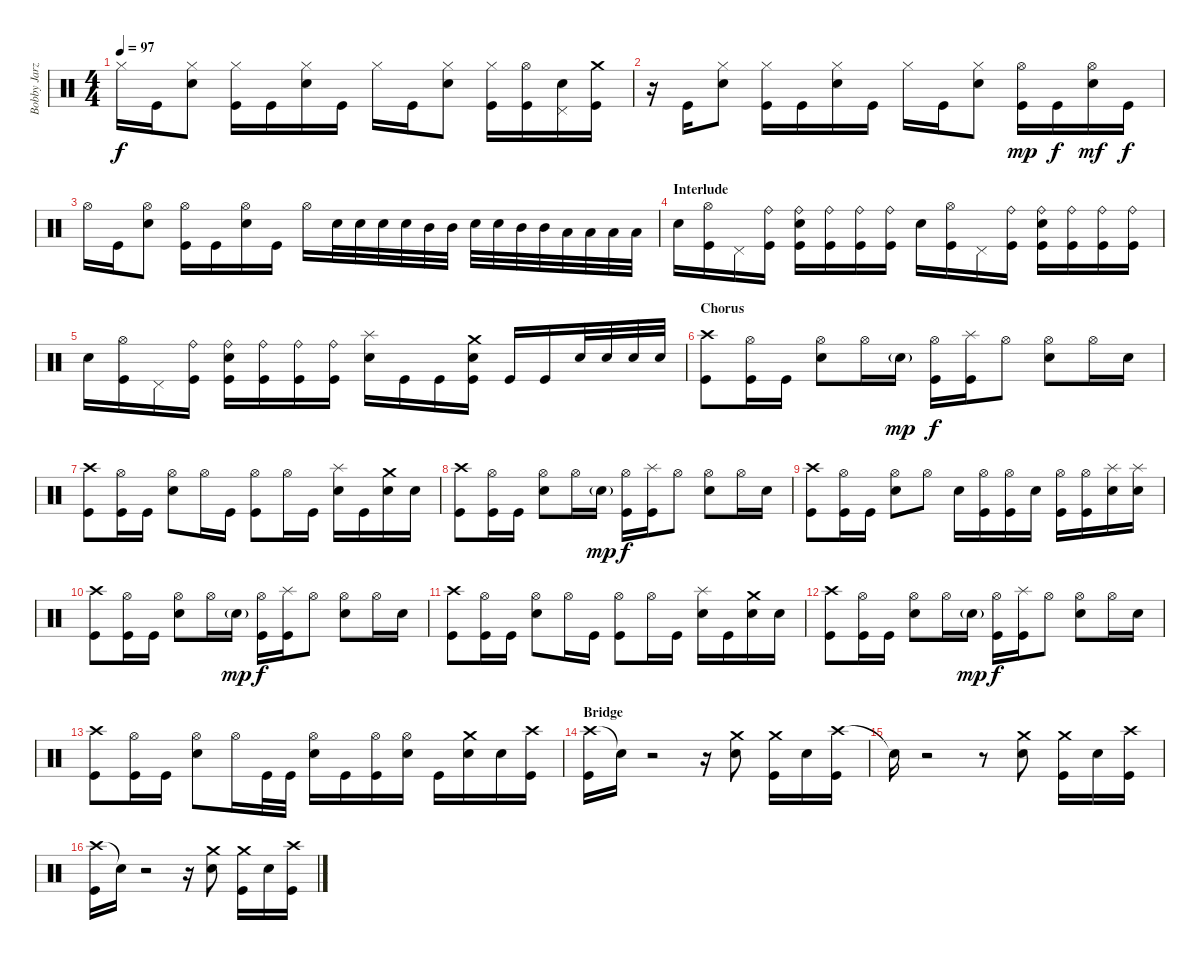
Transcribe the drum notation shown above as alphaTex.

\track ("Bobby Jarzombek" "Bobby Jarz") {instrument percussion}
\staff {score}
\articulation defaults
\ts (4 4)
\tempo 97
\clef neutral
\ks c "Hi-Hat (closed)".16{dy f} "Kick (hit)".16
("Hi-Hat (closed)" "Electric Snare (hit)").8 ("Hi-Hat (closed)" "Kick (hit)").16 "Kick (hit)".16 ("Hi-Hat (closed)" "Electric Snare (hit)").16 "Kick (hit)".16 "Hi-Hat (closed)".16 "Kick (hit)".16 ("Hi-Hat (closed)" "Electric Snare (hit)").8 ("Hi-Hat (closed)" "Kick (hit)").16 ("Hi-Hat (open)" "Kick (hit)").16 ("Electric Snare (hit)" "Pedal Hi-Hat (hit)").16 ("Crash medium (hit)" "Kick (hit)").16 |
r.16 "Kick (hit)".16 ("Hi-Hat (closed)" "Electric Snare (hit)").8 ("Hi-Hat (closed)" "Kick (hit)").16 "Kick (hit)".16 ("Hi-Hat (closed)" "Electric Snare (hit)").16 "Kick (hit)".16 "Hi-Hat (closed)".16 "Kick (hit)".16 ("Hi-Hat (closed)" "Electric Snare (hit)").8 ("Hi-Hat (open)" "Kick (hit)").16{dy mp} "Kick (hit)".16{dy f} ("Hi-Hat (open)" "Electric Snare (hit)").16{dy mf} "Kick (hit)".16{dy f} |
"Hi-Hat (open)".16 "Kick (hit)".16 ("Hi-Hat (open)" "Electric Snare (hit)").8 ("Hi-Hat (open)" "Kick (hit)").16 "Kick (hit)".16 ("Hi-Hat (open)" "Electric Snare (hit)").16 "Kick (hit)".16 "Hi-Hat (open)".16 "Electric Snare (hit)".32 "Electric Snare (hit)".32 "Electric Snare (hit)".32 "Electric Snare (hit)".32 "Mid Tom (hit)".32 "Mid Tom (hit)".32 "Electric Snare (hit)".32 "Electric Snare (hit)".32 "Mid Tom (hit)".32 "Mid Tom (hit)".32 "Low Tom (hit)".32 "Low Tom (hit)".32 "Low Tom (hit)".32 "Low Tom (hit)".32 |
\section ("" "Interlude")
"Electric Snare (hit)".16 ("Hi-Hat (open)" "Kick (hit)").16 "Pedal Hi-Hat (hit)".16 ("Ride (bell)" "Kick (hit)").16 ("Ride (bell)" "Electric Snare (hit)" "Kick (hit)").16 ("Ride (bell)" "Kick (hit)").16 ("Ride (bell)" "Kick (hit)").16 ("Ride (bell)" "Kick (hit)").16 "Electric Snare (hit)".16 ("Hi-Hat (open)" "Kick (hit)").16 "Pedal Hi-Hat (hit)".16 ("Ride (bell)" "Kick (hit)").16 ("Ride (bell)" "Electric Snare (hit)" "Kick (hit)").16 ("Ride (bell)" "Kick (hit)").16 ("Ride (bell)" "Kick (hit)").16 ("Ride (bell)" "Kick (hit)").16 |
"Electric Snare (hit)".16 ("Hi-Hat (open)" "Kick (hit)").16 "Pedal Hi-Hat (hit)".16 ("Ride (bell)" "Kick (hit)").16 ("Ride (bell)" "Electric Snare (hit)" "Kick (hit)").16 ("Ride (bell)" "Kick (hit)").16 ("Ride (bell)" "Kick (hit)").16 ("Ride (bell)" "Kick (hit)").16 ("Splash (hit)" "Electric Snare (hit)").16 "Kick (hit)".16 "Kick (hit)".16 ("Crash medium (hit)" "Electric Snare (hit)" "Kick (hit)").16 "Kick (hit)".16 "Kick (hit)".16 "Electric Snare (hit)".32 "Electric Snare (hit)".32 "Electric Snare (hit)".32 "Electric Snare (hit)".32 |
\section ("" "Chorus")
("Crash high (hit)" "Kick (hit)").8 ("Hi-Hat (open)" "Kick (hit)").16 "Kick (hit)".16 ("Hi-Hat (open)" "Electric Snare (hit)").8 "Hi-Hat (open)".16 "Electric Snare (hit)"{g}.16{dy mp} ("Hi-Hat (open)" "Kick (hit)").16{dy f} ("Splash (hit)" "Kick (hit)").16 "Hi-Hat (open)".8 ("Hi-Hat (open)" "Electric Snare (hit)").8 "Hi-Hat (open)".16 "Electric Snare (hit)".16 |
("Crash high (hit)" "Kick (hit)").8 ("Hi-Hat (open)" "Kick (hit)").16 "Kick (hit)".16 ("Hi-Hat (open)" "Electric Snare (hit)").8 "Hi-Hat (open)".16 "Kick (hit)".16 ("Hi-Hat (open)" "Kick (hit)").8 "Hi-Hat (open)".16 "Kick (hit)".16 ("Splash (hit)" "Electric Snare (hit)").16 "Kick (hit)".16 ("Crash medium (hit)" "Electric Snare (hit)").16 "Electric Snare (hit)".16 |
("Crash high (hit)" "Kick (hit)").8 ("Hi-Hat (open)" "Kick (hit)").16 "Kick (hit)".16 ("Hi-Hat (open)" "Electric Snare (hit)").8 "Hi-Hat (open)".16 "Electric Snare (hit)"{g}.16{dy mp} ("Hi-Hat (open)" "Kick (hit)").16{dy f} ("Splash (hit)" "Kick (hit)").16 "Hi-Hat (open)".8 ("Hi-Hat (open)" "Electric Snare (hit)").8 "Hi-Hat (open)".16 "Electric Snare (hit)".16 |
("Crash high (hit)" "Kick (hit)").8 ("Hi-Hat (open)" "Kick (hit)").16 "Kick (hit)".16 ("Hi-Hat (open)" "Electric Snare (hit)").8 "Hi-Hat (open)".8 "Electric Snare (hit)".16 ("Hi-Hat (open)" "Kick (hit)").16 ("Hi-Hat (open)" "Kick (hit)").16 "Electric Snare (hit)".16 ("Hi-Hat (open)" "Kick (hit)").16 ("Hi-Hat (open)" "Kick (hit)").16 ("Splash (hit)" "Electric Snare (hit)").16 ("Splash (hit)" "Electric Snare (hit)").16 |
("Crash high (hit)" "Kick (hit)").8 ("Hi-Hat (open)" "Kick (hit)").16 "Kick (hit)".16 ("Hi-Hat (open)" "Electric Snare (hit)").8 "Hi-Hat (open)".16 "Electric Snare (hit)"{g}.16{dy mp} ("Hi-Hat (open)" "Kick (hit)").16{dy f} ("Splash (hit)" "Kick (hit)").16 "Hi-Hat (open)".8 ("Hi-Hat (open)" "Electric Snare (hit)").8 "Hi-Hat (open)".16 "Electric Snare (hit)".16 |
("Crash high (hit)" "Kick (hit)").8 ("Hi-Hat (open)" "Kick (hit)").16 "Kick (hit)".16 ("Hi-Hat (open)" "Electric Snare (hit)").8 "Hi-Hat (open)".16 "Kick (hit)".16 ("Hi-Hat (open)" "Kick (hit)").8 "Hi-Hat (open)".16 "Kick (hit)".16 ("Splash (hit)" "Electric Snare (hit)").16 "Kick (hit)".16 ("Crash medium (hit)" "Electric Snare (hit)").16 "Electric Snare (hit)".16 |
("Crash high (hit)" "Kick (hit)").8 ("Hi-Hat (open)" "Kick (hit)").16 "Kick (hit)".16 ("Hi-Hat (open)" "Electric Snare (hit)").8 "Hi-Hat (open)".16 "Electric Snare (hit)"{g}.16{dy mp} ("Hi-Hat (open)" "Kick (hit)").16{dy f} ("Splash (hit)" "Kick (hit)").16 "Hi-Hat (open)".8 ("Hi-Hat (open)" "Electric Snare (hit)").8 "Hi-Hat (open)".16 "Electric Snare (hit)".16 |
("Crash high (hit)" "Kick (hit)").8 ("Hi-Hat (open)" "Kick (hit)").16 "Kick (hit)".16 ("Hi-Hat (open)" "Electric Snare (hit)").8 "Hi-Hat (open)".16 "Kick (hit)".32 "Kick (hit)".32 ("Hi-Hat (open)" "Electric Snare (hit)").16 "Kick (hit)".16 ("Hi-Hat (open)" "Kick (hit)").16 ("Hi-Hat (open)" "Electric Snare (hit)").16 "Kick (hit)".16 ("Crash medium (hit)" "Electric Snare (hit)").16 "Electric Snare (hit)".16 ("Crash high (hit)" "Kick (hit)").16 |
\section ("" "Bridge")
("Crash high (hit)" "Kick (hit)").16 "Snare (hit)"{t}.16{volume 0} r.2 r.16 ("Crash medium (hit)" "Electric Snare (hit)").8{volume 13} ("Crash medium (hit)" "Kick (hit)").16 "Electric Snare (hit)".16 ("Crash high (hit)" "Kick (hit)").16 |
"Snare (hit)"{t}.16{volume 0} r.2 r.8 ("Crash medium (hit)" "Electric Snare (hit)").8{volume 13} ("Crash medium (hit)" "Kick (hit)").16 "Electric Snare (hit)".16 ("Crash high (hit)" "Kick (hit)").16 |
("Crash high (hit)" "Kick (hit)").16 "Snare (hit)"{t}.16{volume 0} r.2 r.16 ("Crash medium (hit)" "Electric Snare (hit)").8{volume 13} ("Crash medium (hit)" "Kick (hit)").16 "Electric Snare (hit)".16 ("Crash high (hit)" "Kick (hit)").16
